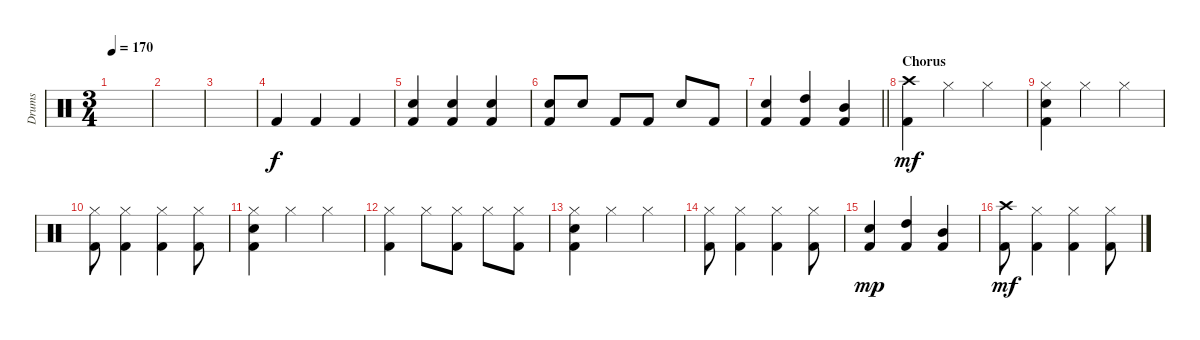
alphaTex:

\track ("Drums" "Drums") {instrument percussion}
\staff {score}
\articulation defaults
\ts (3 4)
\tempo 170
\clef neutral
\ks c
|
|
|
"Kick (hit) 2".4 "Kick (hit) 2".4 "Kick (hit) 2".4 |
("Snare (hit) 2" "Kick (hit) 2").4 ("Snare (hit) 2" "Kick (hit) 2").4 ("Snare (hit) 2" "Kick (hit) 2").4 |
("Snare (hit) 2" "Kick (hit) 2").8 "Snare (hit) 2".8 "Kick (hit) 2".8 "Kick (hit) 2".8 "Snare (hit) 2".8 "Kick (hit) 2".8 |
\barLineRight lightlight
("Snare (hit) 2" "Kick (hit) 2").4 ("High Tom (hit)" "Kick (hit) 2").4 ("Mid Tom (hit)" "Kick (hit) 2").4 |
\section ("" "Chorus")
("Crash high (hit)" "Kick (hit) 2").4{dy mf} "Hi-Hat (closed)".4 "Hi-Hat (closed)".4 |
("Hi-Hat (closed)" "Snare (hit) 2" "Kick (hit) 2").4 "Hi-Hat (closed)".4 "Hi-Hat (closed)".4 |
("Hi-Hat (closed)" "Kick (hit) 2").8 ("Hi-Hat (closed)" "Kick (hit) 2").4 ("Hi-Hat (closed)" "Kick (hit) 2").4 ("Hi-Hat (closed)" "Kick (hit) 2").8 |
("Hi-Hat (closed)" "Snare (hit) 2" "Kick (hit) 2").4 "Hi-Hat (closed)".4 "Hi-Hat (closed)".4 |
("Hi-Hat (closed)" "Kick (hit) 2").4 "Hi-Hat (closed)".8 ("Hi-Hat (closed)" "Kick (hit) 2").8 "Hi-Hat (closed)".8 ("Hi-Hat (closed)" "Kick (hit) 2").8 |
("Hi-Hat (closed)" "Snare (hit) 2" "Kick (hit) 2").4 "Hi-Hat (closed)".4 "Hi-Hat (closed)".4 |
("Hi-Hat (closed)" "Kick (hit) 2").8 ("Hi-Hat (closed)" "Kick (hit) 2").4 ("Hi-Hat (closed)" "Kick (hit) 2").4 ("Hi-Hat (closed)" "Kick (hit) 2").8 |
("Snare (hit) 2" "Kick (hit) 2").4{dy mp} ("High Tom (hit)" "Kick (hit) 2").4 ("Mid Tom (hit)" "Kick (hit) 2").4 |
("Crash high (hit)" "Kick (hit) 2").8{dy mf} ("Hi-Hat (closed)" "Kick (hit) 2").4 ("Hi-Hat (closed)" "Kick (hit) 2").4 ("Hi-Hat (closed)" "Kick (hit) 2").8
